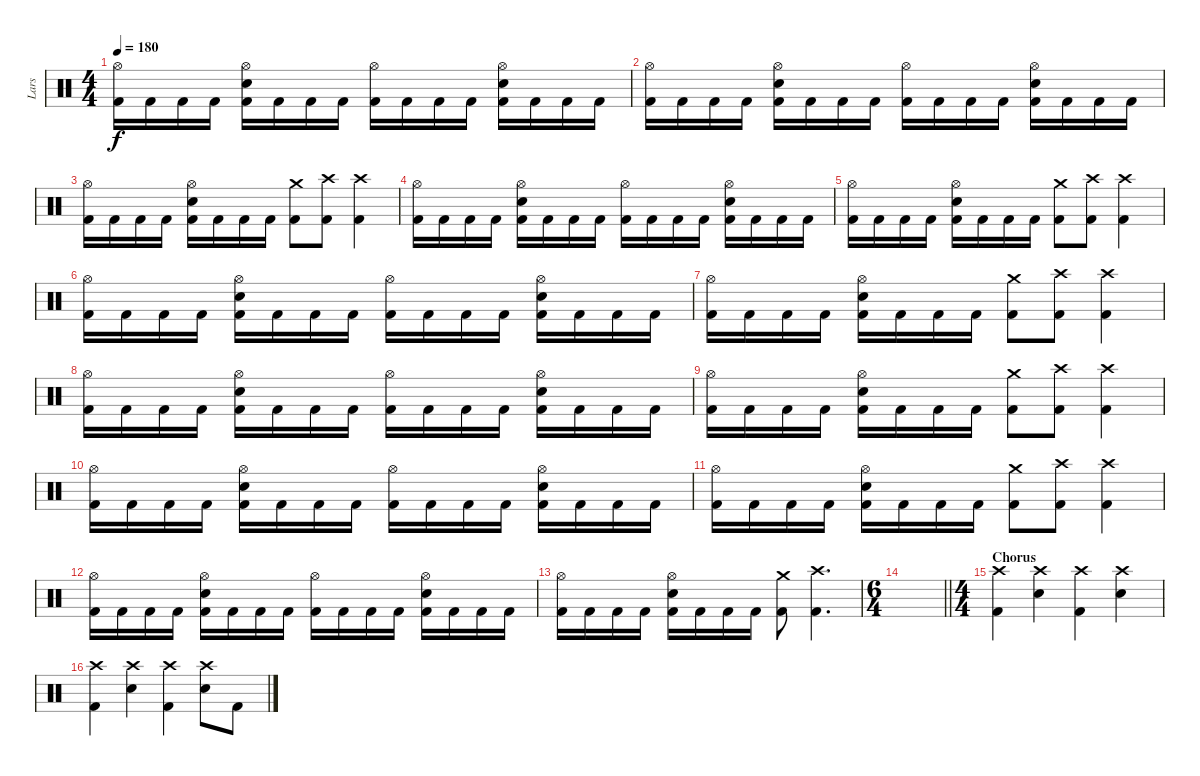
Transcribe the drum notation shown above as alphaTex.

\track ("Lars" "Lars") {instrument percussion}
\staff {score}
\articulation defaults
\ts (4 4)
\tempo 180
\clef neutral
\ks c
("Hi-Hat (open)" "Kick (hit) 2").16{dy f} "Kick (hit) 2".16 "Kick (hit) 2".16 "Kick (hit) 2".16 ("Hi-Hat (open)" "Electric Snare (hit)" "Kick (hit) 2").16 "Kick (hit) 2".16 "Kick (hit) 2".16 "Kick (hit) 2".16 ("Hi-Hat (open)" "Kick (hit) 2").16 "Kick (hit) 2".16 "Kick (hit) 2".16 "Kick (hit) 2".16 ("Hi-Hat (open)" "Electric Snare (hit)" "Kick (hit) 2").16 "Kick (hit) 2".16 "Kick (hit) 2".16 "Kick (hit) 2".16 |
("Hi-Hat (open)" "Kick (hit) 2").16 "Kick (hit) 2".16 "Kick (hit) 2".16 "Kick (hit) 2".16 ("Hi-Hat (open)" "Electric Snare (hit)" "Kick (hit) 2").16 "Kick (hit) 2".16 "Kick (hit) 2".16 "Kick (hit) 2".16 ("Hi-Hat (open)" "Kick (hit) 2").16 "Kick (hit) 2".16 "Kick (hit) 2".16 "Kick (hit) 2".16 ("Hi-Hat (open)" "Electric Snare (hit)" "Kick (hit) 2").16 "Kick (hit) 2".16 "Kick (hit) 2".16 "Kick (hit) 2".16 |
("Hi-Hat (open)" "Kick (hit) 2").16 "Kick (hit) 2".16 "Kick (hit) 2".16 "Kick (hit) 2".16 ("Hi-Hat (open)" "Electric Snare (hit)" "Kick (hit) 2").16 "Kick (hit) 2".16 "Kick (hit) 2".16 "Kick (hit) 2".16 ("Crash medium (hit)" "Kick (hit) 2").8 ("Crash high (hit)" "Kick (hit) 2").8 ("Crash high (hit)" "Kick (hit) 2").4 |
("Hi-Hat (open)" "Kick (hit) 2").16 "Kick (hit) 2".16 "Kick (hit) 2".16 "Kick (hit) 2".16 ("Hi-Hat (open)" "Electric Snare (hit)" "Kick (hit) 2").16 "Kick (hit) 2".16 "Kick (hit) 2".16 "Kick (hit) 2".16 ("Hi-Hat (open)" "Kick (hit) 2").16 "Kick (hit) 2".16 "Kick (hit) 2".16 "Kick (hit) 2".16 ("Hi-Hat (open)" "Electric Snare (hit)" "Kick (hit) 2").16 "Kick (hit) 2".16 "Kick (hit) 2".16 "Kick (hit) 2".16 |
("Hi-Hat (open)" "Kick (hit) 2").16 "Kick (hit) 2".16 "Kick (hit) 2".16 "Kick (hit) 2".16 ("Hi-Hat (open)" "Electric Snare (hit)" "Kick (hit) 2").16 "Kick (hit) 2".16 "Kick (hit) 2".16 "Kick (hit) 2".16 ("Crash medium (hit)" "Kick (hit) 2").8 ("Crash high (hit)" "Kick (hit) 2").8 ("Crash high (hit)" "Kick (hit) 2").4 |
("Hi-Hat (open)" "Kick (hit) 2").16 "Kick (hit) 2".16 "Kick (hit) 2".16 "Kick (hit) 2".16 ("Hi-Hat (open)" "Electric Snare (hit)" "Kick (hit) 2").16 "Kick (hit) 2".16 "Kick (hit) 2".16 "Kick (hit) 2".16 ("Hi-Hat (open)" "Kick (hit) 2").16 "Kick (hit) 2".16 "Kick (hit) 2".16 "Kick (hit) 2".16 ("Hi-Hat (open)" "Electric Snare (hit)" "Kick (hit) 2").16 "Kick (hit) 2".16 "Kick (hit) 2".16 "Kick (hit) 2".16 |
("Hi-Hat (open)" "Kick (hit) 2").16 "Kick (hit) 2".16 "Kick (hit) 2".16 "Kick (hit) 2".16 ("Hi-Hat (open)" "Electric Snare (hit)" "Kick (hit) 2").16 "Kick (hit) 2".16 "Kick (hit) 2".16 "Kick (hit) 2".16 ("Crash medium (hit)" "Kick (hit) 2").8 ("Crash high (hit)" "Kick (hit) 2").8 ("Crash high (hit)" "Kick (hit) 2").4 |
("Hi-Hat (open)" "Kick (hit) 2").16 "Kick (hit) 2".16 "Kick (hit) 2".16 "Kick (hit) 2".16 ("Hi-Hat (open)" "Electric Snare (hit)" "Kick (hit) 2").16 "Kick (hit) 2".16 "Kick (hit) 2".16 "Kick (hit) 2".16 ("Hi-Hat (open)" "Kick (hit) 2").16 "Kick (hit) 2".16 "Kick (hit) 2".16 "Kick (hit) 2".16 ("Hi-Hat (open)" "Electric Snare (hit)" "Kick (hit) 2").16 "Kick (hit) 2".16 "Kick (hit) 2".16 "Kick (hit) 2".16 |
("Hi-Hat (open)" "Kick (hit) 2").16 "Kick (hit) 2".16 "Kick (hit) 2".16 "Kick (hit) 2".16 ("Hi-Hat (open)" "Electric Snare (hit)" "Kick (hit) 2").16 "Kick (hit) 2".16 "Kick (hit) 2".16 "Kick (hit) 2".16 ("Crash medium (hit)" "Kick (hit) 2").8 ("Crash high (hit)" "Kick (hit) 2").8 ("Crash high (hit)" "Kick (hit) 2").4 |
("Hi-Hat (open)" "Kick (hit) 2").16 "Kick (hit) 2".16 "Kick (hit) 2".16 "Kick (hit) 2".16 ("Hi-Hat (open)" "Electric Snare (hit)" "Kick (hit) 2").16 "Kick (hit) 2".16 "Kick (hit) 2".16 "Kick (hit) 2".16 ("Hi-Hat (open)" "Kick (hit) 2").16 "Kick (hit) 2".16 "Kick (hit) 2".16 "Kick (hit) 2".16 ("Hi-Hat (open)" "Electric Snare (hit)" "Kick (hit) 2").16 "Kick (hit) 2".16 "Kick (hit) 2".16 "Kick (hit) 2".16 |
("Hi-Hat (open)" "Kick (hit) 2").16 "Kick (hit) 2".16 "Kick (hit) 2".16 "Kick (hit) 2".16 ("Hi-Hat (open)" "Electric Snare (hit)" "Kick (hit) 2").16 "Kick (hit) 2".16 "Kick (hit) 2".16 "Kick (hit) 2".16 ("Crash medium (hit)" "Kick (hit) 2").8 ("Crash high (hit)" "Kick (hit) 2").8 ("Crash high (hit)" "Kick (hit) 2").4 |
("Hi-Hat (open)" "Kick (hit) 2").16 "Kick (hit) 2".16 "Kick (hit) 2".16 "Kick (hit) 2".16 ("Hi-Hat (open)" "Electric Snare (hit)" "Kick (hit) 2").16 "Kick (hit) 2".16 "Kick (hit) 2".16 "Kick (hit) 2".16 ("Hi-Hat (open)" "Kick (hit) 2").16 "Kick (hit) 2".16 "Kick (hit) 2".16 "Kick (hit) 2".16 ("Hi-Hat (open)" "Electric Snare (hit)" "Kick (hit) 2").16 "Kick (hit) 2".16 "Kick (hit) 2".16 "Kick (hit) 2".16 |
("Hi-Hat (open)" "Kick (hit) 2").16 "Kick (hit) 2".16 "Kick (hit) 2".16 "Kick (hit) 2".16 ("Hi-Hat (open)" "Electric Snare (hit)" "Kick (hit) 2").16 "Kick (hit) 2".16 "Kick (hit) 2".16 "Kick (hit) 2".16 ("Crash medium (hit)" "Kick (hit) 2").8 ("Crash high (hit)" "Kick (hit) 2").4{d} |
\ts (6 4)
\barLineRight lightlight
|
\ts (4 4)
\section ("" "Chorus")
("Crash high (hit)" "Kick (hit) 2").4 ("Crash high (hit)" "Electric Snare (hit)").4 ("Crash high (hit)" "Kick (hit) 2").4 ("Crash high (hit)" "Electric Snare (hit)").4 |
("Crash high (hit)" "Kick (hit) 2").4 ("Crash high (hit)" "Electric Snare (hit)").4 ("Crash high (hit)" "Kick (hit) 2").4 ("Crash high (hit)" "Electric Snare (hit)").8 "Kick (hit) 2".8
